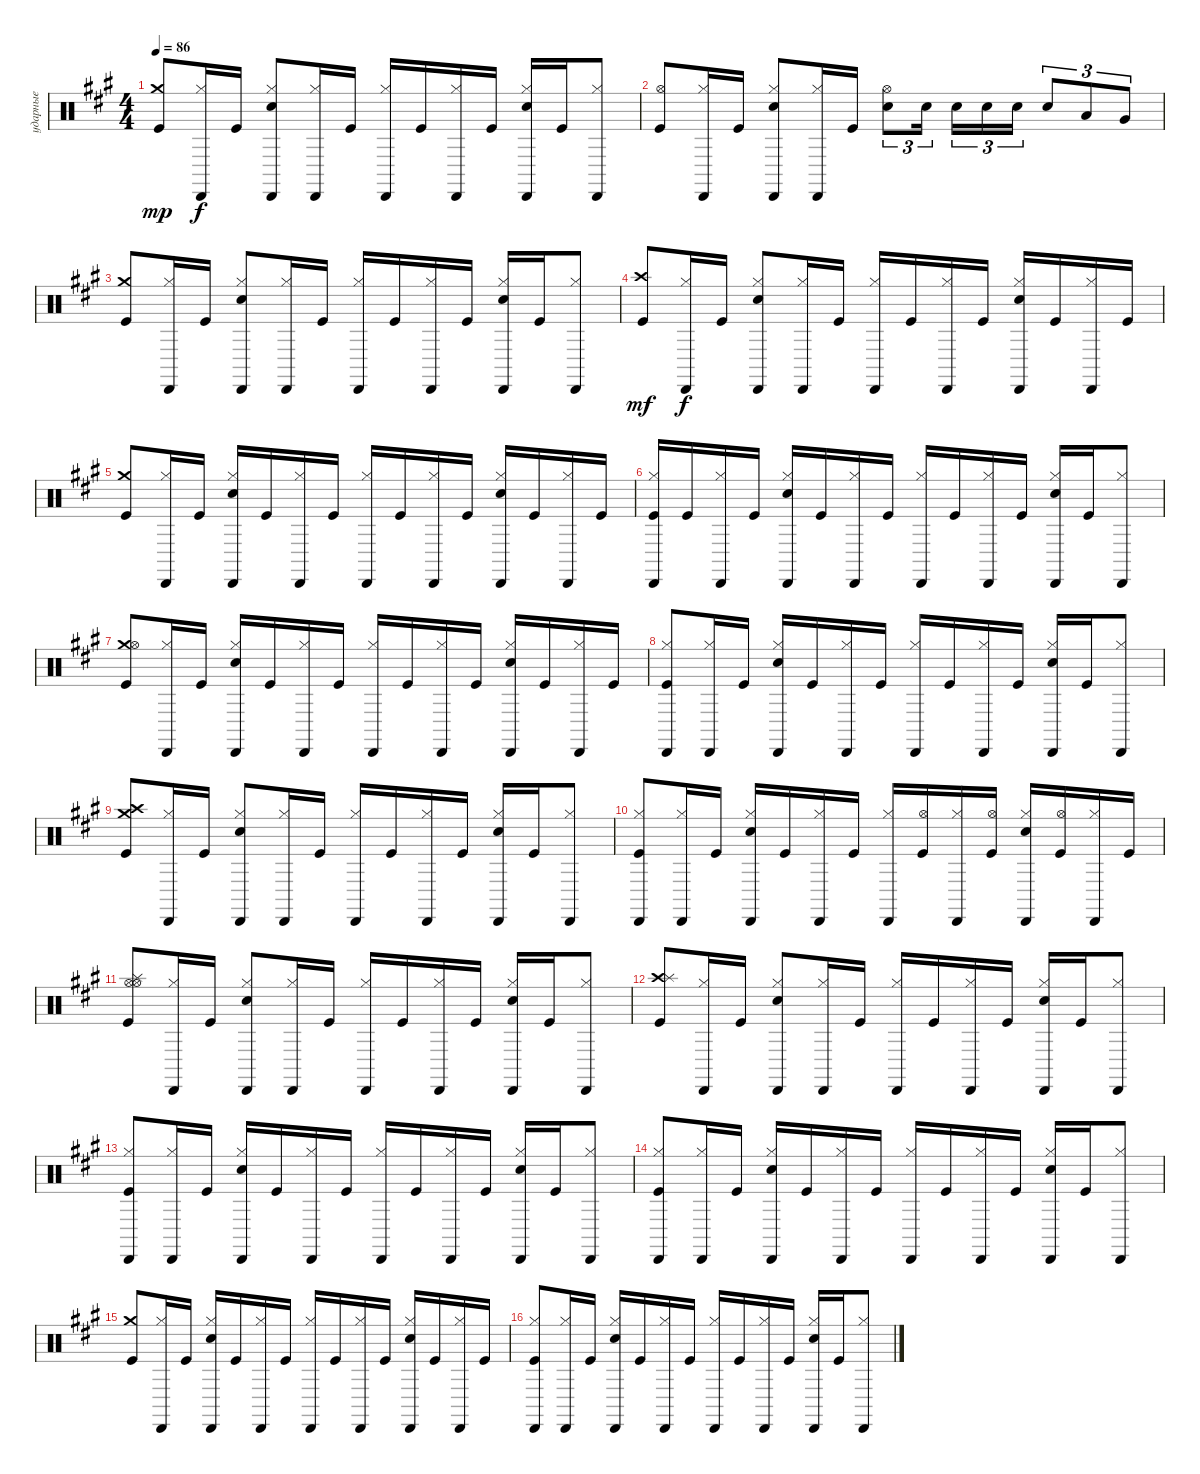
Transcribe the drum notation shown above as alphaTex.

\track ("ударные" "ударные") {instrument percussion}
\staff {score}
\articulation defaults
\ts (4 4)
\tempo 86
\clef neutral
\ks f#minor
("Kick (hit)" "Crash medium (hit)").8{dy mp} ("Hi-Hat (closed)" "Cabasa (hit)").16{dy f} "Kick (hit)".16 ("Snare (hit) 2" "Hi-Hat (closed)" "Cabasa (hit)").8 ("Hi-Hat (closed)" "Cabasa (hit)").16 "Kick (hit)".16 ("Hi-Hat (closed)" "Cabasa (hit)").16 "Kick (hit)".16 ("Hi-Hat (closed)" "Cabasa (hit)").16 "Kick (hit)".16 ("Hi-Hat (closed)" "Snare (hit) 2" "Cabasa (hit)").16 "Kick (hit)".16 ("Hi-Hat (closed)" "Cabasa (hit)").8 |
("Kick (hit)" "Hi-Hat (open)").8 ("Hi-Hat (closed)" "Cabasa (hit)").16 "Kick (hit)".16 ("Snare (hit) 2" "Hi-Hat (closed)" "Cabasa (hit)").8 ("Hi-Hat (closed)" "Cabasa (hit)").16 "Kick (hit)".16 ("Snare (hit) 2" "Hi-Hat (open)").8{tu (3 2)} "Snare (hit) 2".16{tu (3 2) beam splitsecondary} "Snare (hit) 2".16{tu (3 2)} "Snare (hit) 2".16{tu (3 2)} "Snare (hit) 2".16{tu (3 2)} "Snare (hit) 2".8{tu (3 2)} "Low Tom (hit)".8{tu (3 2)} "Very Low Tom (hit)".8{tu (3 2)} |
("Kick (hit)" "Crash medium (hit)").8 ("Hi-Hat (closed)" "Cabasa (hit)").16 "Kick (hit)".16 ("Snare (hit) 2" "Hi-Hat (closed)" "Cabasa (hit)").8 ("Hi-Hat (closed)" "Cabasa (hit)").16 "Kick (hit)".16 ("Hi-Hat (closed)" "Cabasa (hit)").16 "Kick (hit)".16 ("Hi-Hat (closed)" "Cabasa (hit)").16 "Kick (hit)".16 ("Hi-Hat (closed)" "Snare (hit) 2" "Cabasa (hit)").16 "Kick (hit)".16 ("Hi-Hat (closed)" "Cabasa (hit)").8 |
("Kick (hit)" "Crash high (hit)").8{dy mf} ("Hi-Hat (closed)" "Cabasa (hit)").16{dy f} "Kick (hit)".16 ("Snare (hit) 2" "Hi-Hat (closed)" "Cabasa (hit)").8 ("Hi-Hat (closed)" "Cabasa (hit)").16 "Kick (hit)".16 ("Hi-Hat (closed)" "Cabasa (hit)").16 "Kick (hit)".16 ("Hi-Hat (closed)" "Cabasa (hit)").16 "Kick (hit)".16 ("Hi-Hat (closed)" "Snare (hit) 2" "Cabasa (hit)").16 "Kick (hit)".16 ("Hi-Hat (closed)" "Cabasa (hit)").16 "Kick (hit)".16 |
("Kick (hit)" "Crash medium (hit)").8 ("Hi-Hat (closed)" "Cabasa (hit)").16 "Kick (hit)".16 ("Snare (hit) 2" "Hi-Hat (closed)" "Cabasa (hit)").16 "Kick (hit)".16 ("Hi-Hat (closed)" "Cabasa (hit)").16 "Kick (hit)".16 ("Hi-Hat (closed)" "Cabasa (hit)").16 "Kick (hit)".16 ("Hi-Hat (closed)" "Cabasa (hit)").16 "Kick (hit)".16 ("Hi-Hat (closed)" "Snare (hit) 2" "Cabasa (hit)").16 "Kick (hit)".16 ("Hi-Hat (closed)" "Cabasa (hit)").16 "Kick (hit)".16 |
("Kick (hit)" "Hi-Hat (closed)" "Cabasa (hit)").16 "Kick (hit)".16 ("Hi-Hat (closed)" "Cabasa (hit)").16 "Kick (hit)".16 ("Snare (hit) 2" "Hi-Hat (closed)" "Cabasa (hit)").16 "Kick (hit)".16 ("Hi-Hat (closed)" "Cabasa (hit)").16 "Kick (hit)".16 ("Hi-Hat (closed)" "Cabasa (hit)").16 "Kick (hit)".16 ("Hi-Hat (closed)" "Cabasa (hit)").16 "Kick (hit)".16 ("Hi-Hat (closed)" "Snare (hit) 2" "Cabasa (hit)").16 "Kick (hit)".16 ("Hi-Hat (closed)" "Cabasa (hit)").8 |
("Kick (hit)" "Crash medium (hit)" "Hi-Hat (open)").8 ("Hi-Hat (closed)" "Cabasa (hit)").16 "Kick (hit)".16 ("Snare (hit) 2" "Hi-Hat (closed)" "Cabasa (hit)").16 "Kick (hit)".16 ("Hi-Hat (closed)" "Cabasa (hit)").16 "Kick (hit)".16 ("Hi-Hat (closed)" "Cabasa (hit)").16 "Kick (hit)".16 ("Hi-Hat (closed)" "Cabasa (hit)").16 "Kick (hit)".16 ("Hi-Hat (closed)" "Snare (hit) 2" "Cabasa (hit)").16 "Kick (hit)".16 ("Hi-Hat (closed)" "Cabasa (hit)").16 "Kick (hit)".16 |
("Kick (hit)" "Hi-Hat (closed)" "Cabasa (hit)").8 ("Hi-Hat (closed)" "Cabasa (hit)").16 "Kick (hit)".16 ("Snare (hit) 2" "Hi-Hat (closed)" "Cabasa (hit)").16 "Kick (hit)".16 ("Hi-Hat (closed)" "Cabasa (hit)").16 "Kick (hit)".16 ("Hi-Hat (closed)" "Cabasa (hit)").16 "Kick (hit)".16 ("Hi-Hat (closed)" "Cabasa (hit)").16 "Kick (hit)".16 ("Hi-Hat (closed)" "Snare (hit) 2" "Cabasa (hit)").16 "Kick (hit)".16 ("Hi-Hat (closed)" "Cabasa (hit)").8 |
("Kick (hit)" "Crash high (hit)" "Crash medium (hit)").8 ("Hi-Hat (closed)" "Cabasa (hit)").16 "Kick (hit)".16 ("Snare (hit) 2" "Hi-Hat (closed)" "Cabasa (hit)").8 ("Hi-Hat (closed)" "Cabasa (hit)").16 "Kick (hit)".16 ("Hi-Hat (closed)" "Cabasa (hit)").16 "Kick (hit)".16 ("Hi-Hat (closed)" "Cabasa (hit)").16 "Kick (hit)".16 ("Hi-Hat (closed)" "Snare (hit) 2" "Cabasa (hit)").16 "Kick (hit)".16 ("Hi-Hat (closed)" "Cabasa (hit)").8 |
("Kick (hit)" "Hi-Hat (closed)" "Cabasa (hit)").8 ("Hi-Hat (closed)" "Cabasa (hit)").16 "Kick (hit)".16 ("Snare (hit) 2" "Hi-Hat (closed)" "Cabasa (hit)").16 "Kick (hit)".16 ("Hi-Hat (closed)" "Cabasa (hit)").16 "Kick (hit)".16 ("Hi-Hat (closed)" "Cabasa (hit)").16 ("Kick (hit)" "Hi-Hat (open)").16 ("Hi-Hat (closed)" "Cabasa (hit)").16 ("Kick (hit)" "Hi-Hat (open)").16 ("Hi-Hat (closed)" "Snare (hit) 2" "Cabasa (hit)").16 ("Kick (hit)" "Hi-Hat (open)").16 ("Hi-Hat (closed)" "Cabasa (hit)").16 "Kick (hit)".16 |
("Kick (hit)" "Hi-Hat (open)" "Hi-Hat (open)" "Splash (hit)").8 ("Hi-Hat (closed)" "Cabasa (hit)").16 "Kick (hit)".16 ("Snare (hit) 2" "Hi-Hat (closed)" "Cabasa (hit)").8 ("Hi-Hat (closed)" "Cabasa (hit)").16 "Kick (hit)".16 ("Hi-Hat (closed)" "Cabasa (hit)").16 "Kick (hit)".16 ("Hi-Hat (closed)" "Cabasa (hit)").16 "Kick (hit)".16 ("Hi-Hat (closed)" "Snare (hit) 2" "Cabasa (hit)").16 "Kick (hit)".16 ("Hi-Hat (closed)" "Cabasa (hit)").8 |
("Kick (hit)" "Crash high (hit)" "Splash (hit)").8 ("Hi-Hat (closed)" "Cabasa (hit)").16 "Kick (hit)".16 ("Snare (hit) 2" "Hi-Hat (closed)" "Cabasa (hit)").8 ("Hi-Hat (closed)" "Cabasa (hit)").16 "Kick (hit)".16 ("Hi-Hat (closed)" "Cabasa (hit)").16 "Kick (hit)".16 ("Hi-Hat (closed)" "Cabasa (hit)").16 "Kick (hit)".16 ("Hi-Hat (closed)" "Snare (hit) 2" "Cabasa (hit)").16 "Kick (hit)".16 ("Hi-Hat (closed)" "Cabasa (hit)").8 |
("Kick (hit)" "Hi-Hat (closed)" "Cabasa (hit)").8 ("Hi-Hat (closed)" "Cabasa (hit)").16 "Kick (hit)".16 ("Snare (hit) 2" "Hi-Hat (closed)" "Cabasa (hit)").16 "Kick (hit)".16 ("Hi-Hat (closed)" "Cabasa (hit)").16 "Kick (hit)".16 ("Hi-Hat (closed)" "Cabasa (hit)").16 "Kick (hit)".16 ("Hi-Hat (closed)" "Cabasa (hit)").16 "Kick (hit)".16 ("Hi-Hat (closed)" "Snare (hit) 2" "Cabasa (hit)").16 "Kick (hit)".16 ("Hi-Hat (closed)" "Cabasa (hit)").8 |
("Kick (hit)" "Hi-Hat (closed)" "Cabasa (hit)").8 ("Hi-Hat (closed)" "Cabasa (hit)").16 "Kick (hit)".16 ("Snare (hit) 2" "Hi-Hat (closed)" "Cabasa (hit)").16 "Kick (hit)".16 ("Hi-Hat (closed)" "Cabasa (hit)").16 "Kick (hit)".16 ("Hi-Hat (closed)" "Cabasa (hit)").16 "Kick (hit)".16 ("Hi-Hat (closed)" "Cabasa (hit)").16 "Kick (hit)".16 ("Hi-Hat (closed)" "Snare (hit) 2" "Cabasa (hit)").16 "Kick (hit)".16 ("Hi-Hat (closed)" "Cabasa (hit)").8 |
("Kick (hit)" "Crash medium (hit)").8 ("Hi-Hat (closed)" "Cabasa (hit)").16 "Kick (hit)".16 ("Snare (hit) 2" "Hi-Hat (closed)" "Cabasa (hit)").16 "Kick (hit)".16 ("Hi-Hat (closed)" "Cabasa (hit)").16 "Kick (hit)".16 ("Hi-Hat (closed)" "Cabasa (hit)").16 "Kick (hit)".16 ("Hi-Hat (closed)" "Cabasa (hit)").16 "Kick (hit)".16 ("Hi-Hat (closed)" "Snare (hit) 2" "Cabasa (hit)").16 "Kick (hit)".16 ("Hi-Hat (closed)" "Cabasa (hit)").16 "Kick (hit)".16 |
("Kick (hit)" "Hi-Hat (closed)" "Cabasa (hit)").8 ("Hi-Hat (closed)" "Cabasa (hit)").16 "Kick (hit)".16 ("Snare (hit) 2" "Hi-Hat (closed)" "Cabasa (hit)").16 "Kick (hit)".16 ("Hi-Hat (closed)" "Cabasa (hit)").16 "Kick (hit)".16 ("Hi-Hat (closed)" "Cabasa (hit)").16 "Kick (hit)".16 ("Hi-Hat (closed)" "Cabasa (hit)").16 "Kick (hit)".16 ("Hi-Hat (closed)" "Snare (hit) 2" "Cabasa (hit)").16 "Kick (hit)".16 ("Hi-Hat (closed)" "Cabasa (hit)").8
